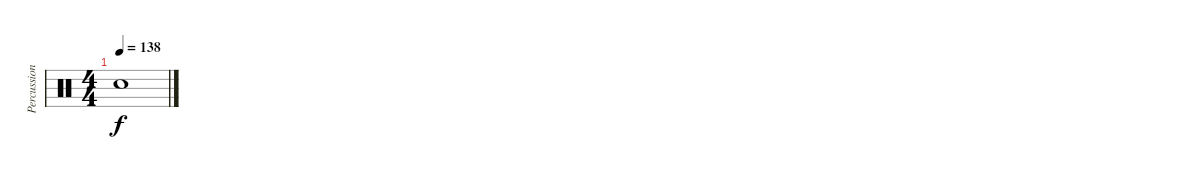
\track ("Percussion" "Percussion") {instrument percussion}
\staff {score}
\articulation defaults
\ts (4 4)
\tempo 138
\clef neutral
\ks c "Snare (hit)"{t}.1{dy f}
